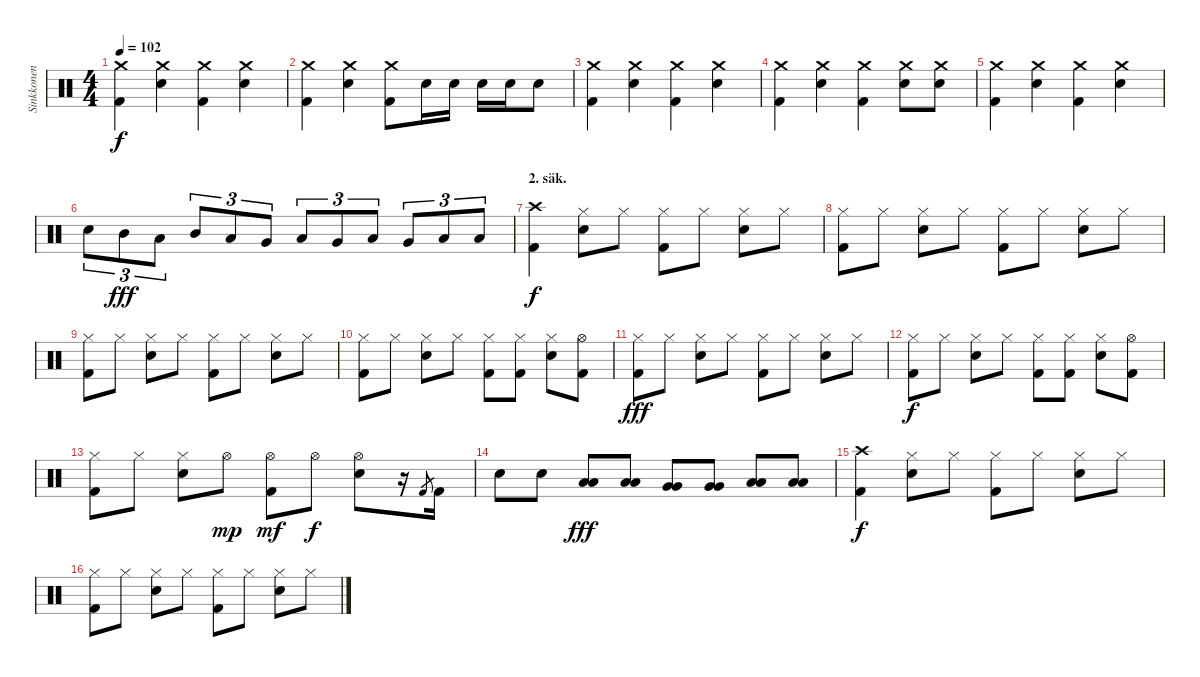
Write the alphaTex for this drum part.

\track ("Sinkkonen" "Sinkkonen") {instrument percussion}
\staff {score}
\articulation defaults
\ts (4 4)
\tempo 102
\clef neutral
\ks c
("Kick (hit) 2" "Crash medium (hit)").4{dy f} ("Crash medium (hit)" "Snare (hit) 2").4 ("Kick (hit) 2" "Crash medium (hit)").4 ("Crash medium (hit)" "Snare (hit) 2").4 |
("Kick (hit) 2" "Crash medium (hit)").4 ("Crash medium (hit)" "Snare (hit) 2").4 ("Kick (hit) 2" "Crash medium (hit)").8 "Snare (hit) 2".16 "Snare (hit) 2".16 "Snare (hit) 2".16 "Snare (hit) 2".16 "Snare (hit) 2".8 |
("Kick (hit) 2" "Crash medium (hit)").4 ("Crash medium (hit)" "Snare (hit) 2").4 ("Kick (hit) 2" "Crash medium (hit)").4 ("Crash medium (hit)" "Snare (hit) 2").4 |
("Kick (hit) 2" "Crash medium (hit)").4 ("Crash medium (hit)" "Snare (hit) 2").4 ("Kick (hit) 2" "Crash medium (hit)").4 ("Crash medium (hit)" "Snare (hit) 2").8 ("Crash medium (hit)" "Snare (hit) 2").8 |
("Kick (hit) 2" "Crash medium (hit)").4 ("Crash medium (hit)" "Snare (hit) 2").4 ("Kick (hit) 2" "Crash medium (hit)").4 ("Crash medium (hit)" "Snare (hit) 2").4 |
"Snare (hit) 2".8{tu (3 2)} "Mid Tom (hit)".8{tu (3 2) dy fff} "Low Tom (hit)".8{tu (3 2)} "Mid Tom (hit)".8{tu (3 2)} "Low Tom (hit)".8{tu (3 2)} "Very Low Tom (hit)".8{tu (3 2)} "Low Tom (hit)".8{tu (3 2)} "Very Low Tom (hit)".8{tu (3 2)} "Low Floor Tom (hit)".8{tu (3 2)} "Very Low Tom (hit)".8{tu (3 2)} "Low Floor Tom (hit)".8{tu (3 2)} "Low Floor Tom (hit)".8{tu (3 2)} |
\section ("" "2. säk.")
("Kick (hit) 2" "Crash high (hit)").4{dy f} ("Hi-Hat (closed)" "Snare (hit) 2").8 "Hi-Hat (closed)".8 ("Kick (hit) 2" "Hi-Hat (closed)").8 "Hi-Hat (closed)".8 ("Hi-Hat (closed)" "Snare (hit) 2").8 "Hi-Hat (closed)".8 |
("Kick (hit) 2" "Hi-Hat (closed)").8 "Hi-Hat (closed)".8 ("Hi-Hat (closed)" "Snare (hit) 2").8 "Hi-Hat (closed)".8 ("Kick (hit) 2" "Hi-Hat (closed)").8 "Hi-Hat (closed)".8 ("Hi-Hat (closed)" "Snare (hit) 2").8 "Hi-Hat (closed)".8 |
("Kick (hit) 2" "Hi-Hat (closed)").8 "Hi-Hat (closed)".8 ("Hi-Hat (closed)" "Snare (hit) 2").8 "Hi-Hat (closed)".8 ("Kick (hit) 2" "Hi-Hat (closed)").8 "Hi-Hat (closed)".8 ("Hi-Hat (closed)" "Snare (hit) 2").8 "Hi-Hat (closed)".8 |
("Kick (hit) 2" "Hi-Hat (closed)").8 "Hi-Hat (closed)".8 ("Hi-Hat (closed)" "Snare (hit) 2").8 "Hi-Hat (closed)".8 ("Kick (hit) 2" "Hi-Hat (closed)").8 ("Kick (hit) 2" "Hi-Hat (closed)").8 ("Hi-Hat (closed)" "Snare (hit) 2").8 ("Kick (hit) 2" "Hi-Hat (open)").8 |
("Kick (hit) 2" "Hi-Hat (closed)").8{dy fff} "Hi-Hat (closed)".8 ("Hi-Hat (closed)" "Snare (hit) 2").8 "Hi-Hat (closed)".8 ("Kick (hit) 2" "Hi-Hat (closed)").8 "Hi-Hat (closed)".8 ("Hi-Hat (closed)" "Snare (hit) 2").8 "Hi-Hat (closed)".8 |
("Kick (hit) 2" "Hi-Hat (closed)").8{dy f} "Hi-Hat (closed)".8 ("Hi-Hat (closed)" "Snare (hit) 2").8 "Hi-Hat (closed)".8 ("Kick (hit) 2" "Hi-Hat (closed)").8 ("Kick (hit) 2" "Hi-Hat (closed)").8 ("Hi-Hat (closed)" "Snare (hit) 2").8 ("Kick (hit) 2" "Hi-Hat (open)").8 |
("Kick (hit) 2" "Hi-Hat (closed)").8 "Hi-Hat (closed)".8 ("Hi-Hat (closed)" "Snare (hit) 2").8 "Hi-Hat (open)".8{dy mp} ("Kick (hit) 2" "Hi-Hat (open)").8{dy mf} "Hi-Hat (open)".8{dy f} ("Hi-Hat (open)" "Snare (hit) 2").8 r.16 "Kick (hit) 2".8{gr} "Kick (hit) 2".16 |
"Snare (hit) 2".8 "Snare (hit) 2".8 ("Low Tom (hit)" "Low Tom (hit)").8{dy fff} ("Low Tom (hit)" "Low Tom (hit)").8 ("Very Low Tom (hit)" "Very Low Tom (hit)").8 ("Very Low Tom (hit)" "Very Low Tom (hit)").8 ("Low Floor Tom (hit)" "Low Floor Tom (hit)").8 ("Low Floor Tom (hit)" "Low Floor Tom (hit)").8 |
("Kick (hit) 2" "Crash high (hit)").4{dy f} ("Hi-Hat (closed)" "Snare (hit) 2").8 "Hi-Hat (closed)".8 ("Kick (hit) 2" "Hi-Hat (closed)").8 "Hi-Hat (closed)".8 ("Hi-Hat (closed)" "Snare (hit) 2").8 "Hi-Hat (closed)".8 |
("Kick (hit) 2" "Hi-Hat (closed)").8 "Hi-Hat (closed)".8 ("Hi-Hat (closed)" "Snare (hit) 2").8 "Hi-Hat (closed)".8 ("Kick (hit) 2" "Hi-Hat (closed)").8 "Hi-Hat (closed)".8 ("Hi-Hat (closed)" "Snare (hit) 2").8 "Hi-Hat (closed)".8
